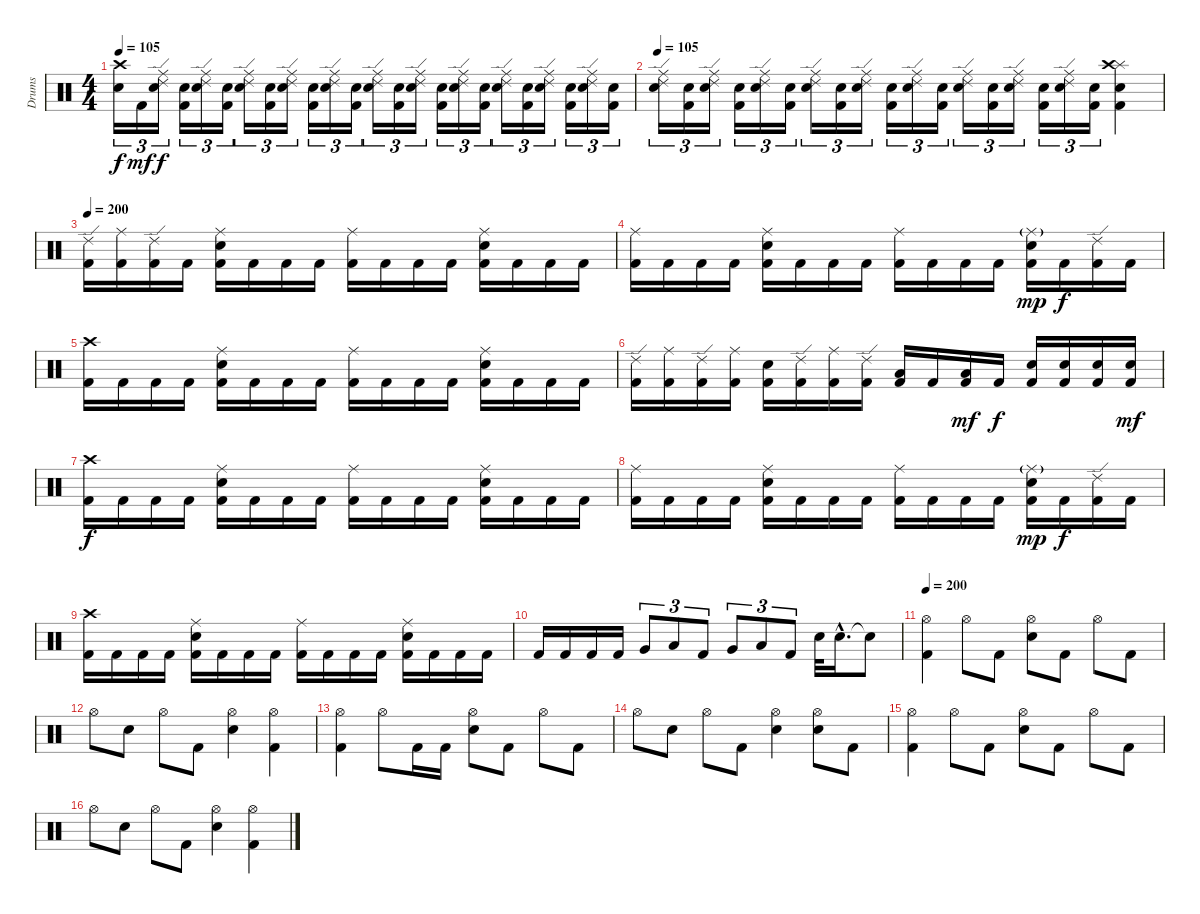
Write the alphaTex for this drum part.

\track ("Drums" "Drums") {instrument percussion}
\staff {score}
\articulation defaults
\ts (4 4)
\tempo 105
\clef neutral
\ks c
("Crash high (hit)" "Electric Snare (hit)").16{tu (3 2) dy f} "Kick (hit) 2".16{tu (3 2) dy mf} ("Ride (edge) 2" "Ride (middle)" "Electric Snare (hit)").16{tu (3 2) dy f} ("Electric Snare (hit)" "Kick (hit) 2").16{tu (3 2)} ("Ride (edge) 2" "Ride (middle)" "Electric Snare (hit)").16{tu (3 2)} ("Electric Snare (hit)" "Kick (hit) 2").16{tu (3 2)} ("Ride (edge) 2" "Ride (middle)" "Electric Snare (hit)").16{tu (3 2)} ("Electric Snare (hit)" "Kick (hit) 2").16{tu (3 2)} ("Ride (edge) 2" "Ride (middle)" "Electric Snare (hit)").16{tu (3 2)} ("Electric Snare (hit)" "Kick (hit) 2").16{tu (3 2)} ("Ride (edge) 2" "Ride (middle)" "Electric Snare (hit)").16{tu (3 2)} ("Electric Snare (hit)" "Kick (hit) 2").16{tu (3 2)} ("Ride (edge) 2" "Ride (middle)" "Electric Snare (hit)").16{tu (3 2)} ("Electric Snare (hit)" "Kick (hit) 2").16{tu (3 2)} ("Ride (edge) 2" "Ride (middle)" "Electric Snare (hit)").16{tu (3 2)} ("Electric Snare (hit)" "Kick (hit) 2").16{tu (3 2)} ("Ride (edge) 2" "Ride (middle)" "Electric Snare (hit)").16{tu (3 2)} ("Electric Snare (hit)" "Kick (hit) 2").16{tu (3 2)} ("Ride (edge) 2" "Ride (middle)" "Electric Snare (hit)").16{tu (3 2)} ("Electric Snare (hit)" "Kick (hit) 2").16{tu (3 2)} ("Ride (edge) 2" "Ride (middle)" "Electric Snare (hit)").16{tu (3 2)} ("Electric Snare (hit)" "Kick (hit) 2").16{tu (3 2)} ("Ride (edge) 2" "Ride (middle)" "Electric Snare (hit)").16{tu (3 2)} ("Electric Snare (hit)" "Kick (hit) 2").16{tu (3 2)} |
\tempo 105
("Ride (edge) 2" "Ride (middle)" "Electric Snare (hit)").16{tu (3 2)} ("Electric Snare (hit)" "Kick (hit) 2").16{tu (3 2)} ("Ride (edge) 2" "Ride (middle)" "Electric Snare (hit)").16{tu (3 2)} ("Electric Snare (hit)" "Kick (hit) 2").16{tu (3 2)} ("Ride (edge) 2" "Ride (middle)" "Electric Snare (hit)").16{tu (3 2)} ("Electric Snare (hit)" "Kick (hit) 2").16{tu (3 2)} ("Ride (edge) 2" "Ride (middle)" "Electric Snare (hit)").16{tu (3 2)} ("Electric Snare (hit)" "Kick (hit) 2").16{tu (3 2)} ("Ride (edge) 2" "Ride (middle)" "Electric Snare (hit)").16{tu (3 2)} ("Electric Snare (hit)" "Kick (hit) 2").16{tu (3 2)} ("Ride (edge) 2" "Ride (middle)" "Electric Snare (hit)").16{tu (3 2)} ("Electric Snare (hit)" "Kick (hit) 2").16{tu (3 2)} ("Ride (edge) 2" "Ride (middle)" "Electric Snare (hit)").16{tu (3 2)} ("Electric Snare (hit)" "Kick (hit) 2").16{tu (3 2)} ("Ride (edge) 2" "Ride (middle)" "Electric Snare (hit)").16{tu (3 2)} ("Electric Snare (hit)" "Kick (hit) 2").16{tu (3 2)} ("Ride (edge) 2" "Ride (middle)" "Electric Snare (hit)").16{tu (3 2)} ("Electric Snare (hit)" "Kick (hit) 2").16{tu (3 2)} ("Splash (hit)" "Crash high (hit)" "Electric Snare (hit)" "Kick (hit) 2").4 |
\tempo 200
("Ride (edge) 2" "Kick (hit) 2").16 ("Ride (middle)" "Kick (hit) 2").16 ("Ride (edge) 2" "Kick (hit) 2").16 "Kick (hit) 2".16 ("Ride (middle)" "Electric Snare (hit)" "Kick (hit) 2").16 "Kick (hit) 2".16 "Kick (hit) 2".16 "Kick (hit) 2".16 ("Ride (middle)" "Kick (hit) 2").16 "Kick (hit) 2".16 "Kick (hit) 2".16 "Kick (hit) 2".16 ("Ride (middle)" "Electric Snare (hit)" "Kick (hit) 2").16 "Kick (hit) 2".16 "Kick (hit) 2".16 "Kick (hit) 2".16 |
("Ride (middle)" "Kick (hit) 2").16 "Kick (hit) 2".16 "Kick (hit) 2".16 "Kick (hit) 2".16 ("Ride (middle)" "Electric Snare (hit)" "Kick (hit) 2").16 "Kick (hit) 2".16 "Kick (hit) 2".16 "Kick (hit) 2".16 ("Ride (middle)" "Kick (hit) 2").16 "Kick (hit) 2".16 "Kick (hit) 2".16 "Kick (hit) 2".16 ("Ride (middle)"{g} "Electric Snare (hit)" "Kick (hit) 2").16{dy mp} "Kick (hit) 2".16{dy f} ("Ride (edge) 2" "Kick (hit) 2").16 "Kick (hit) 2".16 |
("Crash high (hit)" "Kick (hit) 2").16 "Kick (hit) 2".16 "Kick (hit) 2".16 "Kick (hit) 2".16 ("Ride (middle)" "Electric Snare (hit)" "Kick (hit) 2").16 "Kick (hit) 2".16 "Kick (hit) 2".16 "Kick (hit) 2".16 ("Ride (middle)" "Kick (hit) 2").16 "Kick (hit) 2".16 "Kick (hit) 2".16 "Kick (hit) 2".16 ("Ride (middle)" "Electric Snare (hit)" "Kick (hit) 2").16 "Kick (hit) 2".16 "Kick (hit) 2".16 "Kick (hit) 2".16 |
("Ride (edge) 2" "Kick (hit) 2").16 ("Ride (middle)" "Kick (hit) 2").16 ("Ride (edge) 2" "Kick (hit) 2").16 ("Ride (middle)" "Kick (hit) 2").16 ("Electric Snare (hit)" "Kick (hit) 2").16 ("Ride (edge) 2" "Kick (hit) 2").16 ("Ride (middle)" "Kick (hit) 2").16 ("Ride (edge) 2" "Kick (hit) 2").16 ("Low Tom (hit)" "Kick (hit) 2").16 "Kick (hit) 2".16 ("Low Tom (hit)" "Kick (hit) 2").16{dy mf} "Kick (hit) 2".16{dy f} ("Electric Snare (hit)" "Kick (hit) 2").16 ("Electric Snare (hit)" "Kick (hit) 2").16 ("Electric Snare (hit)" "Kick (hit) 2").16 ("Electric Snare (hit)" "Kick (hit) 2").16{dy mf} |
("Crash high (hit)" "Kick (hit) 2").16{dy f} "Kick (hit) 2".16 "Kick (hit) 2".16 "Kick (hit) 2".16 ("Ride (middle)" "Electric Snare (hit)" "Kick (hit) 2").16 "Kick (hit) 2".16 "Kick (hit) 2".16 "Kick (hit) 2".16 ("Ride (middle)" "Kick (hit) 2").16 "Kick (hit) 2".16 "Kick (hit) 2".16 "Kick (hit) 2".16 ("Ride (middle)" "Electric Snare (hit)" "Kick (hit) 2").16 "Kick (hit) 2".16 "Kick (hit) 2".16 "Kick (hit) 2".16 |
("Ride (middle)" "Kick (hit) 2").16 "Kick (hit) 2".16 "Kick (hit) 2".16 "Kick (hit) 2".16 ("Ride (middle)" "Electric Snare (hit)" "Kick (hit) 2").16 "Kick (hit) 2".16 "Kick (hit) 2".16 "Kick (hit) 2".16 ("Ride (middle)" "Kick (hit) 2").16 "Kick (hit) 2".16 "Kick (hit) 2".16 "Kick (hit) 2".16 ("Ride (middle)"{g} "Electric Snare (hit)" "Kick (hit) 2").16{dy mp} "Kick (hit) 2".16{dy f} ("Ride (edge) 2" "Kick (hit) 2").16 "Kick (hit) 2".16 |
("Crash high (hit)" "Kick (hit) 2").16 "Kick (hit) 2".16 "Kick (hit) 2".16 "Kick (hit) 2".16 ("Ride (middle)" "Electric Snare (hit)" "Kick (hit) 2").16 "Kick (hit) 2".16 "Kick (hit) 2".16 "Kick (hit) 2".16 ("Ride (middle)" "Kick (hit) 2").16 "Kick (hit) 2".16 "Kick (hit) 2".16 "Kick (hit) 2".16 ("Ride (middle)" "Electric Snare (hit)" "Kick (hit) 2").16 "Kick (hit) 2".16 "Kick (hit) 2".16 "Kick (hit) 2".16 |
"Kick (hit) 2".16 "Kick (hit) 2".16 "Kick (hit) 2".16 "Kick (hit) 2".16 "Very Low Tom (hit)".8{tu (3 2)} "Low Floor Tom (hit)".8{tu (3 2)} "Kick (hit) 2".8{tu (3 2)} "Very Low Tom (hit)".8{tu (3 2)} "Low Floor Tom (hit)".8{tu (3 2)} "Kick (hit) 2".8{tu (3 2)} "Electric Snare (hit)".32 "Electric Snare (hit)"{hac}.16{d} "Snare (hit)"{t}.8 |
\tempo 200
("Hi-Hat (open)" "Kick (hit) 2").4 "Hi-Hat (open)".8 "Kick (hit) 2".8 ("Hi-Hat (open)" "Electric Snare (hit)").8 "Kick (hit) 2".8 "Hi-Hat (open)".8 "Kick (hit) 2".8 |
"Hi-Hat (open)".8 "Electric Snare (hit)".8 "Hi-Hat (open)".8 "Kick (hit) 2".8 ("Hi-Hat (open)" "Electric Snare (hit)").4 ("Hi-Hat (open)" "Kick (hit) 2").4 |
("Hi-Hat (open)" "Kick (hit) 2").4 "Hi-Hat (open)".8 "Kick (hit) 2".16 "Kick (hit) 2".16 ("Hi-Hat (open)" "Electric Snare (hit)").8 "Kick (hit) 2".8 "Hi-Hat (open)".8 "Kick (hit) 2".8 |
"Hi-Hat (open)".8 "Electric Snare (hit)".8 "Hi-Hat (open)".8 "Kick (hit) 2".8 ("Hi-Hat (open)" "Electric Snare (hit)").4 ("Hi-Hat (open)" "Electric Snare (hit)").8 "Kick (hit) 2".8 |
("Hi-Hat (open)" "Kick (hit) 2").4 "Hi-Hat (open)".8 "Kick (hit) 2".8 ("Hi-Hat (open)" "Electric Snare (hit)").8 "Kick (hit) 2".8 "Hi-Hat (open)".8 "Kick (hit) 2".8 |
"Hi-Hat (open)".8 "Electric Snare (hit)".8 "Hi-Hat (open)".8 "Kick (hit) 2".8 ("Hi-Hat (open)" "Electric Snare (hit)").4 ("Hi-Hat (open)" "Kick (hit) 2").4
